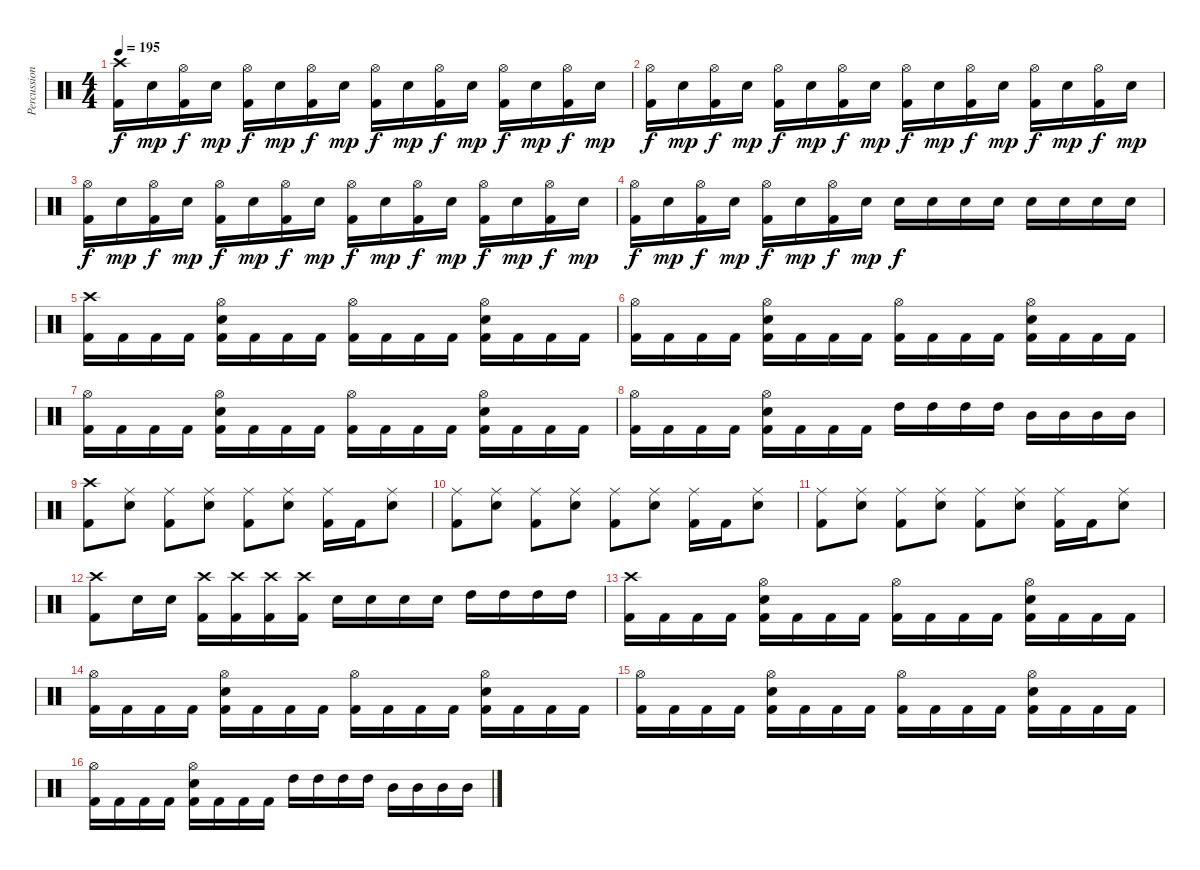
\track ("Percussion" "Percussion") {instrument percussion}
\staff {score}
\articulation defaults
\ts (4 4)
\tempo 195
\clef neutral
\ks c
("Crash high (hit)" "Kick (hit) 2").16{dy f} "Snare (hit) 2".16{dy mp} ("Hi-Hat (open)" "Kick (hit) 2").16{dy f} "Snare (hit) 2".16{dy mp} ("Hi-Hat (open)" "Kick (hit) 2").16{dy f} "Snare (hit) 2".16{dy mp} ("Hi-Hat (open)" "Kick (hit) 2").16{dy f} "Snare (hit) 2".16{dy mp} ("Hi-Hat (open)" "Kick (hit) 2").16{dy f} "Snare (hit) 2".16{dy mp} ("Hi-Hat (open)" "Kick (hit) 2").16{dy f} "Snare (hit) 2".16{dy mp} ("Hi-Hat (open)" "Kick (hit) 2").16{dy f} "Snare (hit) 2".16{dy mp} ("Hi-Hat (open)" "Kick (hit) 2").16{dy f} "Snare (hit) 2".16{dy mp} |
("Hi-Hat (open)" "Kick (hit) 2").16{dy f} "Snare (hit) 2".16{dy mp} ("Hi-Hat (open)" "Kick (hit) 2").16{dy f} "Snare (hit) 2".16{dy mp} ("Hi-Hat (open)" "Kick (hit) 2").16{dy f} "Snare (hit) 2".16{dy mp} ("Hi-Hat (open)" "Kick (hit) 2").16{dy f} "Snare (hit) 2".16{dy mp} ("Hi-Hat (open)" "Kick (hit) 2").16{dy f} "Snare (hit) 2".16{dy mp} ("Hi-Hat (open)" "Kick (hit) 2").16{dy f} "Snare (hit) 2".16{dy mp} ("Hi-Hat (open)" "Kick (hit) 2").16{dy f} "Snare (hit) 2".16{dy mp} ("Hi-Hat (open)" "Kick (hit) 2").16{dy f} "Snare (hit) 2".16{dy mp} |
("Hi-Hat (open)" "Kick (hit) 2").16{dy f} "Snare (hit) 2".16{dy mp} ("Hi-Hat (open)" "Kick (hit) 2").16{dy f} "Snare (hit) 2".16{dy mp} ("Hi-Hat (open)" "Kick (hit) 2").16{dy f} "Snare (hit) 2".16{dy mp} ("Hi-Hat (open)" "Kick (hit) 2").16{dy f} "Snare (hit) 2".16{dy mp} ("Hi-Hat (open)" "Kick (hit) 2").16{dy f} "Snare (hit) 2".16{dy mp} ("Hi-Hat (open)" "Kick (hit) 2").16{dy f} "Snare (hit) 2".16{dy mp} ("Hi-Hat (open)" "Kick (hit) 2").16{dy f} "Snare (hit) 2".16{dy mp} ("Hi-Hat (open)" "Kick (hit) 2").16{dy f} "Snare (hit) 2".16{dy mp} |
("Hi-Hat (open)" "Kick (hit) 2").16{dy f} "Snare (hit) 2".16{dy mp} ("Hi-Hat (open)" "Kick (hit) 2").16{dy f} "Snare (hit) 2".16{dy mp} ("Hi-Hat (open)" "Kick (hit) 2").16{dy f} "Snare (hit) 2".16{dy mp} ("Hi-Hat (open)" "Kick (hit) 2").16{dy f} "Snare (hit) 2".16{dy mp} "Snare (hit) 2".16{dy f} "Snare (hit) 2".16 "Snare (hit) 2".16 "Snare (hit) 2".16 "Snare (hit) 2".16 "Snare (hit) 2".16 "Snare (hit) 2".16 "Snare (hit) 2".16 |
("Crash high (hit)" "Kick (hit) 2").16 "Kick (hit) 2".16 "Kick (hit) 2".16 "Kick (hit) 2".16 ("Snare (hit) 2" "Kick (hit) 2" "Hi-Hat (open)").16 "Kick (hit) 2".16 "Kick (hit) 2".16 "Kick (hit) 2".16 ("Hi-Hat (open)" "Kick (hit) 2").16 "Kick (hit) 2".16 "Kick (hit) 2".16 "Kick (hit) 2".16 ("Hi-Hat (open)" "Kick (hit) 2" "Snare (hit) 2").16 "Kick (hit) 2".16 "Kick (hit) 2".16 "Kick (hit) 2".16 |
("Hi-Hat (open)" "Kick (hit) 2").16 "Kick (hit) 2".16 "Kick (hit) 2".16 "Kick (hit) 2".16 ("Hi-Hat (open)" "Kick (hit) 2" "Snare (hit) 2").16 "Kick (hit) 2".16 "Kick (hit) 2".16 "Kick (hit) 2".16 ("Hi-Hat (open)" "Kick (hit) 2").16 "Kick (hit) 2".16 "Kick (hit) 2".16 "Kick (hit) 2".16 ("Hi-Hat (open)" "Kick (hit) 2" "Snare (hit) 2").16 "Kick (hit) 2".16 "Kick (hit) 2".16 "Kick (hit) 2".16 |
("Hi-Hat (open)" "Kick (hit) 2").16 "Kick (hit) 2".16 "Kick (hit) 2".16 "Kick (hit) 2".16 ("Hi-Hat (open)" "Kick (hit) 2" "Snare (hit) 2").16 "Kick (hit) 2".16 "Kick (hit) 2".16 "Kick (hit) 2".16 ("Hi-Hat (open)" "Kick (hit) 2").16 "Kick (hit) 2".16 "Kick (hit) 2".16 "Kick (hit) 2".16 ("Hi-Hat (open)" "Kick (hit) 2" "Snare (hit) 2").16 "Kick (hit) 2".16 "Kick (hit) 2".16 "Kick (hit) 2".16 |
("Hi-Hat (open)" "Kick (hit) 2").16 "Kick (hit) 2".16 "Kick (hit) 2".16 "Kick (hit) 2".16 ("Hi-Hat (open)" "Kick (hit) 2" "Snare (hit) 2").16 "Kick (hit) 2".16 "Kick (hit) 2".16 "Kick (hit) 2".16 "High Tom (hit)".16 "High Tom (hit)".16 "High Tom (hit)".16 "High Tom (hit)".16 "Mid Tom (hit)".16 "Mid Tom (hit)".16 "Mid Tom (hit)".16 "Mid Tom (hit)".16 |
("Crash high (hit)" "Kick (hit) 2").8 ("Ride (middle)" "Snare (hit) 2").8 ("Ride (middle)" "Kick (hit) 2").8 ("Ride (middle)" "Snare (hit) 2").8 ("Ride (middle)" "Kick (hit) 2").8 ("Ride (middle)" "Snare (hit) 2").8 ("Ride (middle)" "Kick (hit) 2").16 "Kick (hit) 2".16 ("Ride (middle)" "Snare (hit) 2").8 |
("Ride (middle)" "Kick (hit) 2").8 ("Ride (middle)" "Snare (hit) 2").8 ("Ride (middle)" "Kick (hit) 2").8 ("Ride (middle)" "Snare (hit) 2").8 ("Ride (middle)" "Kick (hit) 2").8 ("Ride (middle)" "Snare (hit) 2").8 ("Ride (middle)" "Kick (hit) 2").16 "Kick (hit) 2".16 ("Ride (middle)" "Snare (hit) 2").8 |
("Ride (middle)" "Kick (hit) 2").8 ("Ride (middle)" "Snare (hit) 2").8 ("Ride (middle)" "Kick (hit) 2").8 ("Ride (middle)" "Snare (hit) 2").8 ("Ride (middle)" "Kick (hit) 2").8 ("Ride (middle)" "Snare (hit) 2").8 ("Ride (middle)" "Kick (hit) 2").16 "Kick (hit) 2".16 ("Ride (middle)" "Snare (hit) 2").8 |
("Crash high (hit)" "Kick (hit) 2").8 "Snare (hit) 2".16 "Snare (hit) 2".16 ("Kick (hit) 2" "Crash high (hit)").16 ("Kick (hit) 2" "Crash high (hit)").16 ("Kick (hit) 2" "Crash high (hit)").16 ("Kick (hit) 2" "Crash high (hit)").16 "Snare (hit) 2".16 "Snare (hit) 2".16 "Snare (hit) 2".16 "Snare (hit) 2".16 "High Tom (hit)".16 "High Tom (hit)".16 "High Tom (hit)".16 "High Tom (hit)".16 |
("Crash high (hit)" "Kick (hit) 2").16 "Kick (hit) 2".16 "Kick (hit) 2".16 "Kick (hit) 2".16 ("Snare (hit) 2" "Kick (hit) 2" "Hi-Hat (open)").16 "Kick (hit) 2".16 "Kick (hit) 2".16 "Kick (hit) 2".16 ("Hi-Hat (open)" "Kick (hit) 2").16 "Kick (hit) 2".16 "Kick (hit) 2".16 "Kick (hit) 2".16 ("Hi-Hat (open)" "Kick (hit) 2" "Snare (hit) 2").16 "Kick (hit) 2".16 "Kick (hit) 2".16 "Kick (hit) 2".16 |
("Hi-Hat (open)" "Kick (hit) 2").16 "Kick (hit) 2".16 "Kick (hit) 2".16 "Kick (hit) 2".16 ("Hi-Hat (open)" "Kick (hit) 2" "Snare (hit) 2").16 "Kick (hit) 2".16 "Kick (hit) 2".16 "Kick (hit) 2".16 ("Hi-Hat (open)" "Kick (hit) 2").16 "Kick (hit) 2".16 "Kick (hit) 2".16 "Kick (hit) 2".16 ("Hi-Hat (open)" "Kick (hit) 2" "Snare (hit) 2").16 "Kick (hit) 2".16 "Kick (hit) 2".16 "Kick (hit) 2".16 |
("Hi-Hat (open)" "Kick (hit) 2").16 "Kick (hit) 2".16 "Kick (hit) 2".16 "Kick (hit) 2".16 ("Hi-Hat (open)" "Kick (hit) 2" "Snare (hit) 2").16 "Kick (hit) 2".16 "Kick (hit) 2".16 "Kick (hit) 2".16 ("Hi-Hat (open)" "Kick (hit) 2").16 "Kick (hit) 2".16 "Kick (hit) 2".16 "Kick (hit) 2".16 ("Hi-Hat (open)" "Kick (hit) 2" "Snare (hit) 2").16 "Kick (hit) 2".16 "Kick (hit) 2".16 "Kick (hit) 2".16 |
("Hi-Hat (open)" "Kick (hit) 2").16 "Kick (hit) 2".16 "Kick (hit) 2".16 "Kick (hit) 2".16 ("Hi-Hat (open)" "Kick (hit) 2" "Snare (hit) 2").16 "Kick (hit) 2".16 "Kick (hit) 2".16 "Kick (hit) 2".16 "High Tom (hit)".16 "High Tom (hit)".16 "High Tom (hit)".16 "High Tom (hit)".16 "Mid Tom (hit)".16 "Mid Tom (hit)".16 "Mid Tom (hit)".16 "Mid Tom (hit)".16
